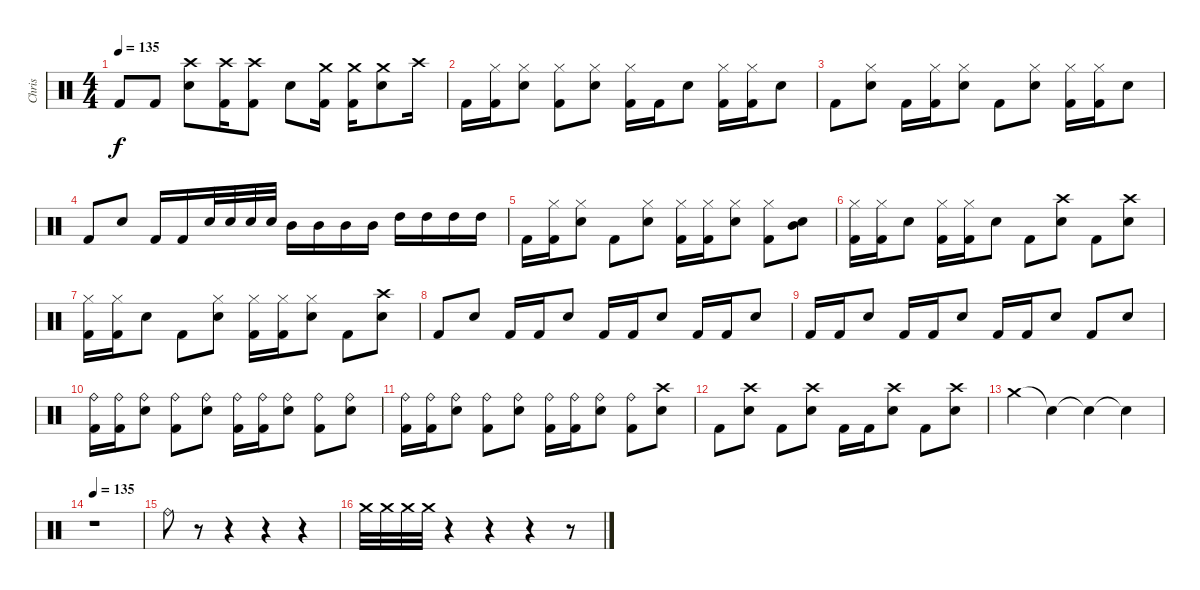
\track ("Chris" "Chris") {instrument percussion}
\staff {score}
\articulation defaults
\ts (4 4)
\tempo 135
\clef neutral
\ks c "Kick (hit) 2".8{dy f} "Kick (hit) 2".8
("Crash high (hit)" "Snare (hit) 2").8 ("Crash high (hit)" "Kick (hit) 2").16 ("Crash high (hit)" "Kick (hit) 2").8 "Snare (hit) 2".8 ("Crash medium (hit)" "Kick (hit) 2").16 ("Crash medium (hit)" "Kick (hit) 2").16 ("Crash medium (hit)" "Snare (hit) 2").8 "Crash high (hit)".16 |
"Kick (hit) 2".16 ("Hi-Hat (closed)" "Kick (hit) 2").16 ("Hi-Hat (closed)" "Snare (hit) 2").8 ("Hi-Hat (closed)" "Kick (hit) 2").8 ("Hi-Hat (closed)" "Snare (hit) 2").8 ("Hi-Hat (closed)" "Kick (hit) 2").16 "Kick (hit) 2".16 "Snare (hit) 2".8 ("Hi-Hat (closed)" "Kick (hit) 2").16 ("Hi-Hat (closed)" "Kick (hit) 2").16 "Snare (hit) 2".8 |
"Kick (hit) 2".8 ("Hi-Hat (closed)" "Snare (hit) 2").8 "Kick (hit) 2".16 ("Hi-Hat (closed)" "Kick (hit) 2").16 ("Hi-Hat (closed)" "Snare (hit) 2").8 "Kick (hit) 2".8 ("Hi-Hat (closed)" "Snare (hit) 2").8 ("Hi-Hat (closed)" "Kick (hit) 2").16 ("Hi-Hat (closed)" "Kick (hit) 2").16 "Snare (hit) 2".8 |
"Kick (hit) 2".8 "Snare (hit) 2".8 "Kick (hit) 2".16 "Kick (hit) 2".16 "Snare (hit) 2".32 "Snare (hit) 2".32 "Snare (hit) 2".32 "Snare (hit) 2".32 "Mid Tom (hit)".16 "Mid Tom (hit)".16 "Mid Tom (hit)".16 "Mid Tom (hit)".16 "High Tom (hit)".16 "High Tom (hit)".16 "High Tom (hit)".16 "High Tom (hit)".16 |
"Kick (hit) 2".16 ("Hi-Hat (closed)" "Kick (hit) 2").16 ("Hi-Hat (closed)" "Snare (hit) 2").8 "Kick (hit) 2".8 ("Hi-Hat (closed)" "Snare (hit) 2").8 ("Hi-Hat (closed)" "Kick (hit) 2").16 ("Hi-Hat (closed)" "Kick (hit) 2").16 ("Hi-Hat (closed)" "Snare (hit) 2").8 ("Hi-Hat (closed)" "Kick (hit) 2").8 ("Mid Tom (hit)" "Snare (hit) 2").8 |
("Hi-Hat (closed)" "Kick (hit) 2").16 ("Hi-Hat (closed)" "Kick (hit) 2").16 "Snare (hit) 2".8 ("Hi-Hat (closed)" "Kick (hit) 2").16 ("Hi-Hat (closed)" "Kick (hit) 2").16 "Snare (hit) 2".8 "Kick (hit) 2".8 ("Crash high (hit)" "Snare (hit) 2").8 "Kick (hit) 2".8 ("Crash high (hit)" "Snare (hit) 2").8 |
("Hi-Hat (closed)" "Kick (hit) 2").16 ("Hi-Hat (closed)" "Kick (hit) 2").16 "Snare (hit) 2".8 "Kick (hit) 2".8 ("Hi-Hat (closed)" "Snare (hit) 2").8 ("Hi-Hat (closed)" "Kick (hit) 2").16 ("Hi-Hat (closed)" "Kick (hit) 2").16 ("Hi-Hat (closed)" "Snare (hit) 2").8 "Kick (hit) 2".8 ("Crash high (hit)" "Snare (hit) 2").8 |
"Kick (hit) 2".8 "Snare (hit) 2".8 "Kick (hit) 2".16 "Kick (hit) 2".16 "Snare (hit) 2".8 "Kick (hit) 2".16 "Kick (hit) 2".16 "Snare (hit) 2".8 "Kick (hit) 2".16 "Kick (hit) 2".16 "Snare (hit) 2".8 |
"Kick (hit) 2".16 "Kick (hit) 2".16 "Snare (hit) 2".8 "Kick (hit) 2".16 "Kick (hit) 2".16 "Snare (hit) 2".8 "Kick (hit) 2".16 "Kick (hit) 2".16 "Snare (hit) 2".8 "Kick (hit) 2".8 "Snare (hit) 2".8 |
("Ride (bell)" "Kick (hit) 2").16 ("Ride (bell)" "Kick (hit) 2").16 ("Ride (bell)" "Snare (hit) 2").8 ("Ride (bell)" "Kick (hit) 2").8 ("Ride (bell)" "Snare (hit) 2").8 ("Ride (bell)" "Kick (hit) 2").16 ("Ride (bell)" "Kick (hit) 2").16 ("Ride (bell)" "Snare (hit) 2").8 ("Ride (bell)" "Kick (hit) 2").8 ("Ride (bell)" "Snare (hit) 2").8 |
("Ride (bell)" "Kick (hit) 2").16 ("Ride (bell)" "Kick (hit) 2").16 ("Ride (bell)" "Snare (hit) 2").8 ("Ride (bell)" "Kick (hit) 2").8 ("Ride (bell)" "Snare (hit) 2").8 ("Ride (bell)" "Kick (hit) 2").16 ("Ride (bell)" "Kick (hit) 2").16 ("Ride (bell)" "Snare (hit) 2").8 ("Ride (bell)" "Kick (hit) 2").8 ("Crash high (hit)" "Snare (hit) 2").8 |
"Kick (hit) 2".8 ("Snare (hit) 2" "Crash high (hit)").8 "Kick (hit) 2".8 ("Snare (hit) 2" "Crash high (hit)").8 "Kick (hit) 2".16 "Kick (hit) 2".16 ("Snare (hit) 2" "Crash high (hit)").8 "Kick (hit) 2".8 ("Snare (hit) 2" "Crash high (hit)").8 |
"Crash medium (hit)".4 "Snare (hit)"{t}.4 "Snare (hit)"{t}.4 "Snare (hit)"{t}.4 |
\tempo 135
r.1 |
"Ride (bell)".8 r.8 r.4 r.4 r.4 |
"Crash medium (hit)".32 "Crash medium (hit)".32 "Crash medium (hit)".32 "Crash medium (hit)".32 r.4 r.4 r.4 r.8
